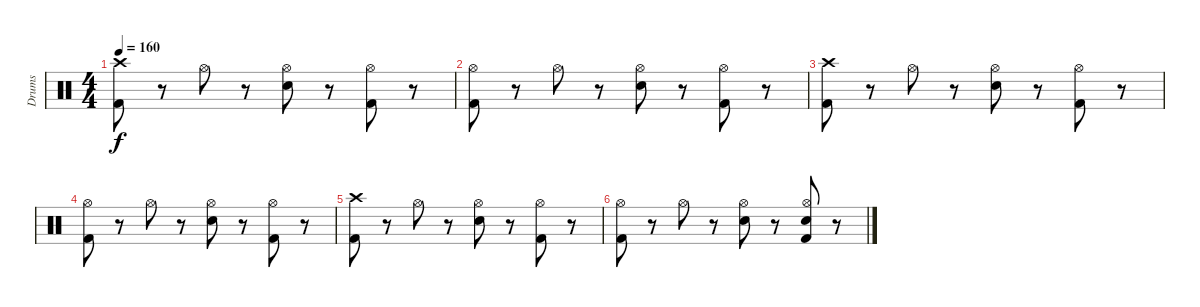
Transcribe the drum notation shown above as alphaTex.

\track ("Drums" "Drums") {instrument percussion}
\staff {score}
\articulation defaults
\ts (4 4)
\tempo 160
\clef neutral
\ks c
("Crash high (hit)" "Kick (hit) 2").8{dy f} r.8 "Hi-Hat (open)".8 r.8 ("Hi-Hat (open)" "Electric Snare (hit)").8 r.8 ("Hi-Hat (open)" "Kick (hit) 2").8 r.8 |
("Hi-Hat (open)" "Kick (hit) 2").8 r.8 "Hi-Hat (open)".8 r.8 ("Hi-Hat (open)" "Electric Snare (hit)").8 r.8 ("Hi-Hat (open)" "Kick (hit) 2").8 r.8 |
("Crash high (hit)" "Kick (hit) 2").8 r.8 "Hi-Hat (open)".8 r.8 ("Hi-Hat (open)" "Electric Snare (hit)").8 r.8 ("Hi-Hat (open)" "Kick (hit) 2").8 r.8 |
("Hi-Hat (open)" "Kick (hit) 2").8 r.8 "Hi-Hat (open)".8 r.8 ("Hi-Hat (open)" "Electric Snare (hit)").8 r.8 ("Hi-Hat (open)" "Kick (hit) 2").8 r.8 |
("Crash high (hit)" "Kick (hit) 2").8 r.8 "Hi-Hat (open)".8 r.8 ("Hi-Hat (open)" "Electric Snare (hit)").8 r.8 ("Hi-Hat (open)" "Kick (hit) 2").8 r.8 |
("Hi-Hat (open)" "Kick (hit) 2").8 r.8 "Hi-Hat (open)".8 r.8 ("Hi-Hat (open)" "Electric Snare (hit)").8 r.8 ("Hi-Hat (open)" "Electric Snare (hit)" "Kick (hit) 2").8 r.8
